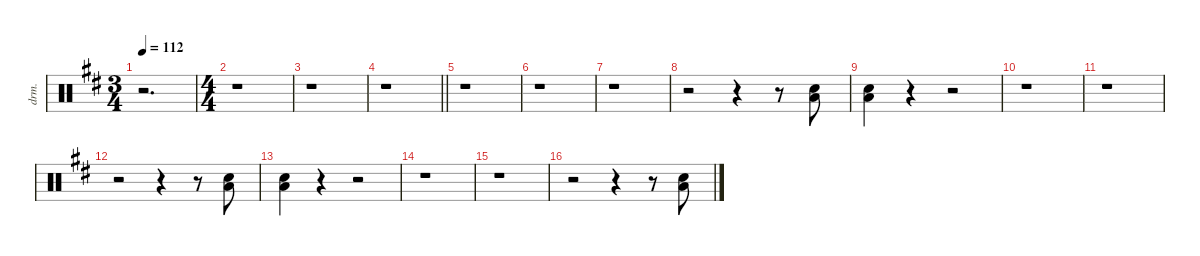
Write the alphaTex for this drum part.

\defaultSystemsLayout 4
\hideDynamics
\bracketExtendMode nobrackets
\otherSystemsTrackNameOrientation horizontal
\track ("Lars - Drums" "drm.") {instrument percussion}
\staff {score}
\articulation defaults
\ts (3 4)
\beaming (8 2 2 2)
\tempo 112
\clef neutral
\ks bminor
r.2{d dy f beam Down} |
\ts (4 4)
\beaming (8 2 2 2 2)
r.1{beam Down} |
r.1{beam Down} |
\barLineRight lightlight
r.1{beam Down} |
r.1{beam Down} |
r.1{beam Down} |
r.1{beam Down} |
r.2{beam Down} r.4{beam Down} r.8{beam Down} ("Low Floor Tom (hit)"{acc forcenatural} "Snare (hit) 2"{acc forcenatural}).8{beam Down} |
("Low Floor Tom (hit)"{acc forcenatural} "Snare (hit) 2"{acc forcenatural}).4{beam Down} r.4{beam Down} r.2{beam Down} |
r.1{beam Down} |
r.1{beam Down} |
r.2{beam Down} r.4{beam Down} r.8{beam Down} ("Low Floor Tom (hit)"{acc forcenatural} "Snare (hit) 2"{acc forcenatural}).8{beam Down} |
("Low Floor Tom (hit)"{acc forcenatural} "Snare (hit) 2"{acc forcenatural}).4{beam Down} r.4{beam Down} r.2{beam Down} |
r.1{beam Down} |
r.1{beam Down} |
r.2{beam Down} r.4{beam Down} r.8{beam Down} ("Low Floor Tom (hit)"{acc forcenatural} "Snare (hit) 2"{acc forcenatural}).8{beam Down}
